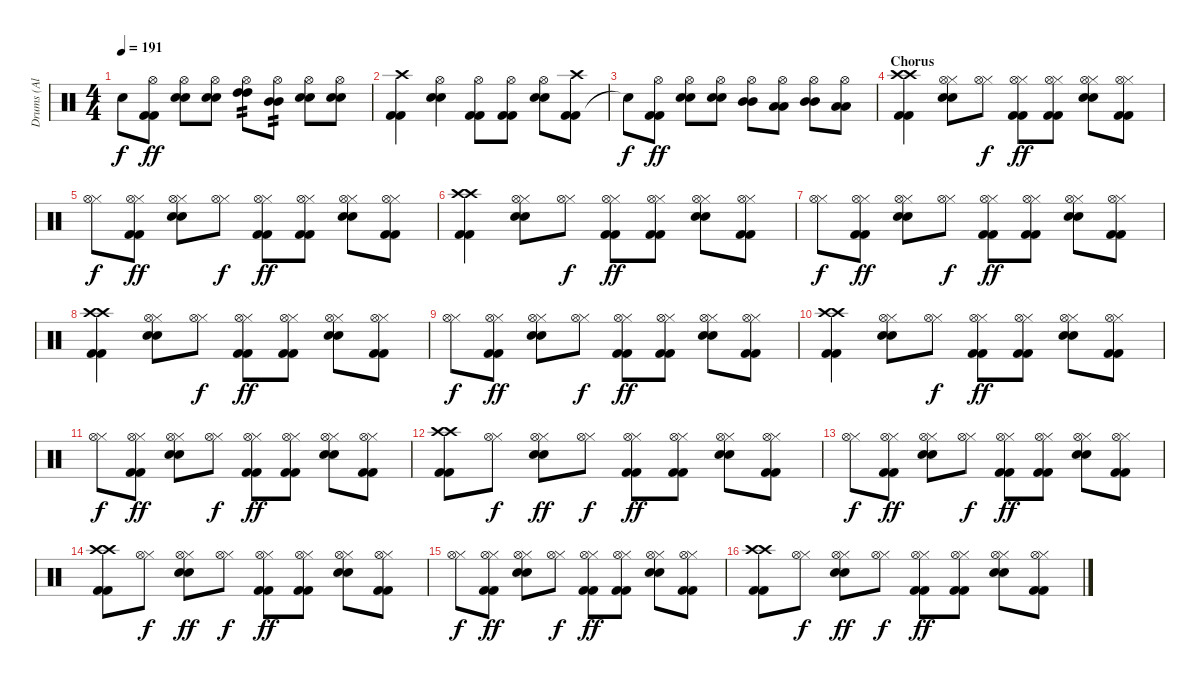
\track ("Drums (Al Sobrante)" "Drums (Al ") {instrument percussion}
\staff {score}
\articulation defaults
\ts (4 4)
\tempo 191
\clef neutral
\ks c "Snare (hit)"{t}.8{dy f}
("Kick (hit) 2" "Kick (hit) 2" "Hi-Hat (open)").8{dy ff} ("Electric Snare (hit)" "Electric Snare (hit)" "Hi-Hat (open)").8 ("Electric Snare (hit)" "Electric Snare (hit)" "Hi-Hat (open)").8 ("High Tom (hit)" "High Tom (hit)" "Hi-Hat (open)").8{tp 2} ("Mid Tom (hit)" "Mid Tom (hit)" "Hi-Hat (open)").8{tp 2} ("Electric Snare (hit)" "Electric Snare (hit)" "Hi-Hat (open)").8 ("Electric Snare (hit)" "Electric Snare (hit)" "Hi-Hat (open)").8 |
("Kick (hit) 2" "Kick (hit) 2" "Crash high (hit)").4 ("Electric Snare (hit)" "Electric Snare (hit)" "Hi-Hat (open)").4 ("Kick (hit) 2" "Kick (hit) 2" "Hi-Hat (open)").8 ("Kick (hit) 2" "Kick (hit) 2" "Hi-Hat (open)").8 ("Electric Snare (hit)" "Electric Snare (hit)" "Hi-Hat (open)").8 ("Kick (hit) 2" "Kick (hit) 2" "Crash high (hit)").8 |
"Snare (hit)"{t}.8{dy f} ("Kick (hit) 2" "Kick (hit) 2" "Hi-Hat (open)").8{dy ff} ("Electric Snare (hit)" "Electric Snare (hit)" "Hi-Hat (open)").8 ("Electric Snare (hit)" "Electric Snare (hit)" "Hi-Hat (open)").8 ("Mid Tom (hit)" "Mid Tom (hit)" "Hi-Hat (open)").8 ("Low Tom (hit)" "Low Tom (hit)" "Hi-Hat (open)").8 ("Mid Tom (hit)" "Mid Tom (hit)" "Hi-Hat (open)").8 ("Low Tom (hit)" "Low Tom (hit)" "Hi-Hat (open)").8 |
\section ("" "Chorus")
("Kick (hit) 2" "Kick (hit) 2" "Crash high (hit)" "Crash high (hit)").4 ("Electric Snare (hit)" "Electric Snare (hit)" "Hi-Hat (closed)" "Hi-Hat (open)").8 ("Hi-Hat (closed)" "Hi-Hat (open)").8{dy f} ("Kick (hit) 2" "Kick (hit) 2" "Hi-Hat (closed)" "Hi-Hat (open)").8{dy ff} ("Kick (hit) 2" "Kick (hit) 2" "Hi-Hat (closed)" "Hi-Hat (open)").8 ("Electric Snare (hit)" "Electric Snare (hit)" "Hi-Hat (closed)" "Hi-Hat (open)").8 ("Kick (hit) 2" "Kick (hit) 2" "Hi-Hat (closed)" "Hi-Hat (open)").8 |
("Hi-Hat (closed)" "Hi-Hat (open)").8{dy f} ("Kick (hit) 2" "Kick (hit) 2" "Hi-Hat (closed)" "Hi-Hat (open)").8{dy ff} ("Electric Snare (hit)" "Electric Snare (hit)" "Hi-Hat (closed)" "Hi-Hat (open)").8 ("Hi-Hat (closed)" "Hi-Hat (open)").8{dy f} ("Kick (hit) 2" "Kick (hit) 2" "Hi-Hat (closed)" "Hi-Hat (open)").8{dy ff} ("Kick (hit) 2" "Kick (hit) 2" "Hi-Hat (closed)" "Hi-Hat (open)").8 ("Electric Snare (hit)" "Electric Snare (hit)" "Hi-Hat (closed)" "Hi-Hat (open)").8 ("Kick (hit) 2" "Kick (hit) 2" "Hi-Hat (closed)" "Hi-Hat (open)").8 |
("Kick (hit) 2" "Kick (hit) 2" "Crash high (hit)" "Crash high (hit)").4 ("Electric Snare (hit)" "Electric Snare (hit)" "Hi-Hat (closed)" "Hi-Hat (open)").8 ("Hi-Hat (closed)" "Hi-Hat (open)").8{dy f} ("Kick (hit) 2" "Kick (hit) 2" "Hi-Hat (closed)" "Hi-Hat (open)").8{dy ff} ("Kick (hit) 2" "Kick (hit) 2" "Hi-Hat (closed)" "Hi-Hat (open)").8 ("Electric Snare (hit)" "Electric Snare (hit)" "Hi-Hat (closed)" "Hi-Hat (open)").8 ("Kick (hit) 2" "Kick (hit) 2" "Hi-Hat (closed)" "Hi-Hat (open)").8 |
("Hi-Hat (closed)" "Hi-Hat (open)").8{dy f} ("Kick (hit) 2" "Kick (hit) 2" "Hi-Hat (closed)" "Hi-Hat (open)").8{dy ff} ("Electric Snare (hit)" "Electric Snare (hit)" "Hi-Hat (closed)" "Hi-Hat (open)").8 ("Hi-Hat (closed)" "Hi-Hat (open)").8{dy f} ("Kick (hit) 2" "Kick (hit) 2" "Hi-Hat (closed)" "Hi-Hat (open)").8{dy ff} ("Kick (hit) 2" "Kick (hit) 2" "Hi-Hat (closed)" "Hi-Hat (open)").8 ("Electric Snare (hit)" "Electric Snare (hit)" "Hi-Hat (closed)" "Hi-Hat (open)").8 ("Kick (hit) 2" "Kick (hit) 2" "Hi-Hat (closed)" "Hi-Hat (open)").8 |
("Kick (hit) 2" "Kick (hit) 2" "Crash high (hit)" "Crash high (hit)").4 ("Electric Snare (hit)" "Electric Snare (hit)" "Hi-Hat (closed)" "Hi-Hat (open)").8 ("Hi-Hat (closed)" "Hi-Hat (open)").8{dy f} ("Kick (hit) 2" "Kick (hit) 2" "Hi-Hat (closed)" "Hi-Hat (open)").8{dy ff} ("Kick (hit) 2" "Kick (hit) 2" "Hi-Hat (closed)" "Hi-Hat (open)").8 ("Electric Snare (hit)" "Electric Snare (hit)" "Hi-Hat (closed)" "Hi-Hat (open)").8 ("Kick (hit) 2" "Kick (hit) 2" "Hi-Hat (closed)" "Hi-Hat (open)").8 |
("Hi-Hat (closed)" "Hi-Hat (open)").8{dy f} ("Kick (hit) 2" "Kick (hit) 2" "Hi-Hat (closed)" "Hi-Hat (open)").8{dy ff} ("Electric Snare (hit)" "Electric Snare (hit)" "Hi-Hat (closed)" "Hi-Hat (open)").8 ("Hi-Hat (closed)" "Hi-Hat (open)").8{dy f} ("Kick (hit) 2" "Kick (hit) 2" "Hi-Hat (closed)" "Hi-Hat (open)").8{dy ff} ("Kick (hit) 2" "Kick (hit) 2" "Hi-Hat (closed)" "Hi-Hat (open)").8 ("Electric Snare (hit)" "Electric Snare (hit)" "Hi-Hat (closed)" "Hi-Hat (open)").8 ("Kick (hit) 2" "Kick (hit) 2" "Hi-Hat (closed)" "Hi-Hat (open)").8 |
("Kick (hit) 2" "Kick (hit) 2" "Crash high (hit)" "Crash high (hit)").4 ("Electric Snare (hit)" "Electric Snare (hit)" "Hi-Hat (closed)" "Hi-Hat (open)").8 ("Hi-Hat (closed)" "Hi-Hat (open)").8{dy f} ("Kick (hit) 2" "Kick (hit) 2" "Hi-Hat (closed)" "Hi-Hat (open)").8{dy ff} ("Kick (hit) 2" "Kick (hit) 2" "Hi-Hat (closed)" "Hi-Hat (open)").8 ("Electric Snare (hit)" "Electric Snare (hit)" "Hi-Hat (closed)" "Hi-Hat (open)").8 ("Kick (hit) 2" "Kick (hit) 2" "Hi-Hat (closed)" "Hi-Hat (open)").8 |
("Hi-Hat (closed)" "Hi-Hat (open)").8{dy f} ("Kick (hit) 2" "Kick (hit) 2" "Hi-Hat (closed)" "Hi-Hat (open)").8{dy ff} ("Electric Snare (hit)" "Electric Snare (hit)" "Hi-Hat (closed)" "Hi-Hat (open)").8 ("Hi-Hat (closed)" "Hi-Hat (open)").8{dy f} ("Kick (hit) 2" "Kick (hit) 2" "Hi-Hat (closed)" "Hi-Hat (open)").8{dy ff} ("Kick (hit) 2" "Kick (hit) 2" "Hi-Hat (closed)" "Hi-Hat (open)").8 ("Electric Snare (hit)" "Electric Snare (hit)" "Hi-Hat (closed)" "Hi-Hat (open)").8 ("Kick (hit) 2" "Kick (hit) 2" "Hi-Hat (closed)" "Hi-Hat (open)").8 |
("Kick (hit) 2" "Kick (hit) 2" "Crash high (hit)" "Crash high (hit)").8 ("Hi-Hat (closed)" "Hi-Hat (open)").8{dy f} ("Electric Snare (hit)" "Electric Snare (hit)" "Hi-Hat (closed)" "Hi-Hat (open)").8{dy ff} ("Hi-Hat (closed)" "Hi-Hat (open)").8{dy f} ("Kick (hit) 2" "Kick (hit) 2" "Hi-Hat (closed)" "Hi-Hat (open)").8{dy ff} ("Kick (hit) 2" "Kick (hit) 2" "Hi-Hat (closed)" "Hi-Hat (open)").8 ("Electric Snare (hit)" "Electric Snare (hit)" "Hi-Hat (closed)" "Hi-Hat (open)").8 ("Kick (hit) 2" "Kick (hit) 2" "Hi-Hat (closed)" "Hi-Hat (open)").8 |
("Hi-Hat (closed)" "Hi-Hat (open)").8{dy f} ("Kick (hit) 2" "Kick (hit) 2" "Hi-Hat (closed)" "Hi-Hat (open)").8{dy ff} ("Electric Snare (hit)" "Electric Snare (hit)" "Hi-Hat (closed)" "Hi-Hat (open)").8 ("Hi-Hat (closed)" "Hi-Hat (open)").8{dy f} ("Kick (hit) 2" "Kick (hit) 2" "Hi-Hat (closed)" "Hi-Hat (open)").8{dy ff} ("Kick (hit) 2" "Kick (hit) 2" "Hi-Hat (closed)" "Hi-Hat (open)").8 ("Electric Snare (hit)" "Electric Snare (hit)" "Hi-Hat (closed)" "Hi-Hat (open)").8 ("Kick (hit) 2" "Kick (hit) 2" "Hi-Hat (closed)" "Hi-Hat (open)").8 |
("Kick (hit) 2" "Kick (hit) 2" "Crash high (hit)" "Crash high (hit)").8 ("Hi-Hat (closed)" "Hi-Hat (open)").8{dy f} ("Electric Snare (hit)" "Electric Snare (hit)" "Hi-Hat (closed)" "Hi-Hat (open)").8{dy ff} ("Hi-Hat (closed)" "Hi-Hat (open)").8{dy f} ("Kick (hit) 2" "Kick (hit) 2" "Hi-Hat (closed)" "Hi-Hat (open)").8{dy ff} ("Kick (hit) 2" "Kick (hit) 2" "Hi-Hat (closed)" "Hi-Hat (open)").8 ("Electric Snare (hit)" "Electric Snare (hit)" "Hi-Hat (closed)" "Hi-Hat (open)").8 ("Kick (hit) 2" "Kick (hit) 2" "Hi-Hat (closed)" "Hi-Hat (open)").8 |
("Hi-Hat (closed)" "Hi-Hat (open)").8{dy f} ("Kick (hit) 2" "Kick (hit) 2" "Hi-Hat (closed)" "Hi-Hat (open)").8{dy ff} ("Electric Snare (hit)" "Electric Snare (hit)" "Hi-Hat (closed)" "Hi-Hat (open)").8 ("Hi-Hat (closed)" "Hi-Hat (open)").8{dy f} ("Kick (hit) 2" "Kick (hit) 2" "Hi-Hat (closed)" "Hi-Hat (open)").8{dy ff} ("Kick (hit) 2" "Kick (hit) 2" "Hi-Hat (closed)" "Hi-Hat (open)").8 ("Electric Snare (hit)" "Electric Snare (hit)" "Hi-Hat (closed)" "Hi-Hat (open)").8 ("Kick (hit) 2" "Kick (hit) 2" "Hi-Hat (closed)" "Hi-Hat (open)").8 |
("Kick (hit) 2" "Kick (hit) 2" "Crash high (hit)" "Crash high (hit)").8 ("Hi-Hat (closed)" "Hi-Hat (open)").8{dy f} ("Electric Snare (hit)" "Electric Snare (hit)" "Hi-Hat (closed)" "Hi-Hat (open)").8{dy ff} ("Hi-Hat (closed)" "Hi-Hat (open)").8{dy f} ("Kick (hit) 2" "Kick (hit) 2" "Hi-Hat (closed)" "Hi-Hat (open)").8{dy ff} ("Kick (hit) 2" "Kick (hit) 2" "Hi-Hat (closed)" "Hi-Hat (open)").8 ("Electric Snare (hit)" "Electric Snare (hit)" "Hi-Hat (closed)" "Hi-Hat (open)").8 ("Kick (hit) 2" "Kick (hit) 2" "Hi-Hat (closed)" "Hi-Hat (open)").8
